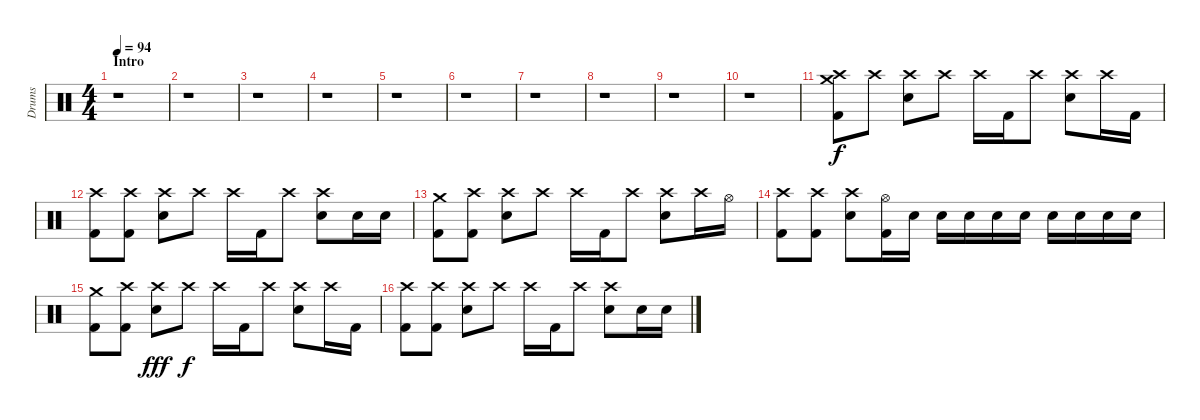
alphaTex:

\track ("Drums" "Drums") {instrument percussion}
\staff {score}
\articulation defaults
\ts (4 4)
\section ("" "Intro")
\tempo 94
\clef neutral
\ks c
r.1{dy f} |
r.1 |
r.1 |
r.1 |
r.1 |
r.1 |
r.1 |
r.1 |
r.1 |
r.1 |
("Crash medium (hit)" "Crash high (hit)" "Kick (hit) 2").8 "Crash high (hit)".8 ("Crash high (hit)" "Electric Snare (hit)").8 "Crash high (hit)".8 "Crash high (hit)".16 "Kick (hit) 2".16 "Crash high (hit)".8 ("Crash high (hit)" "Electric Snare (hit)").8 "Crash high (hit)".16 "Kick (hit) 2".16 |
("Crash high (hit)" "Kick (hit) 2").8 ("Crash high (hit)" "Kick (hit) 2").8 ("Crash high (hit)" "Electric Snare (hit)").8 "Crash high (hit)".8 "Crash high (hit)".16 "Kick (hit) 2".16 "Crash high (hit)".8 ("Crash high (hit)" "Electric Snare (hit)").8 "Electric Snare (hit)".16 "Electric Snare (hit)".16 |
("Crash medium (hit)" "Kick (hit) 2").8 ("Crash high (hit)" "Kick (hit) 2").8 ("Crash high (hit)" "Electric Snare (hit)").8 "Crash high (hit)".8 "Crash high (hit)".16 "Kick (hit) 2".16 "Crash high (hit)".8 ("Crash high (hit)" "Electric Snare (hit)").8 "Crash high (hit)".16 "Hi-Hat (open)".16 |
("Crash high (hit)" "Kick (hit) 2").8 ("Crash high (hit)" "Kick (hit) 2").8 ("Crash high (hit)" "Electric Snare (hit)").8 ("Hi-Hat (open)" "Kick (hit) 2").16 "Electric Snare (hit)".16 "Electric Snare (hit)".16 "Electric Snare (hit)".16 "Electric Snare (hit)".16 "Electric Snare (hit)".16 "Electric Snare (hit)".16 "Electric Snare (hit)".16 "Electric Snare (hit)".16 "Electric Snare (hit)".16 |
("Crash medium (hit)" "Kick (hit) 2").8 ("Crash high (hit)" "Kick (hit) 2").8 ("Crash high (hit)" "Electric Snare (hit)").8{dy fff} "Crash high (hit)".8{dy f} "Crash high (hit)".16 "Kick (hit) 2".16 "Crash high (hit)".8 ("Crash high (hit)" "Electric Snare (hit)").8 "Crash high (hit)".16 "Kick (hit) 2".16 |
("Crash high (hit)" "Kick (hit) 2").8 ("Crash high (hit)" "Kick (hit) 2").8 ("Crash high (hit)" "Electric Snare (hit)").8 "Crash high (hit)".8 "Crash high (hit)".16 "Kick (hit) 2".16 "Crash high (hit)".8 ("Crash high (hit)" "Electric Snare (hit)").8 "Electric Snare (hit)".16 "Electric Snare (hit)".16
